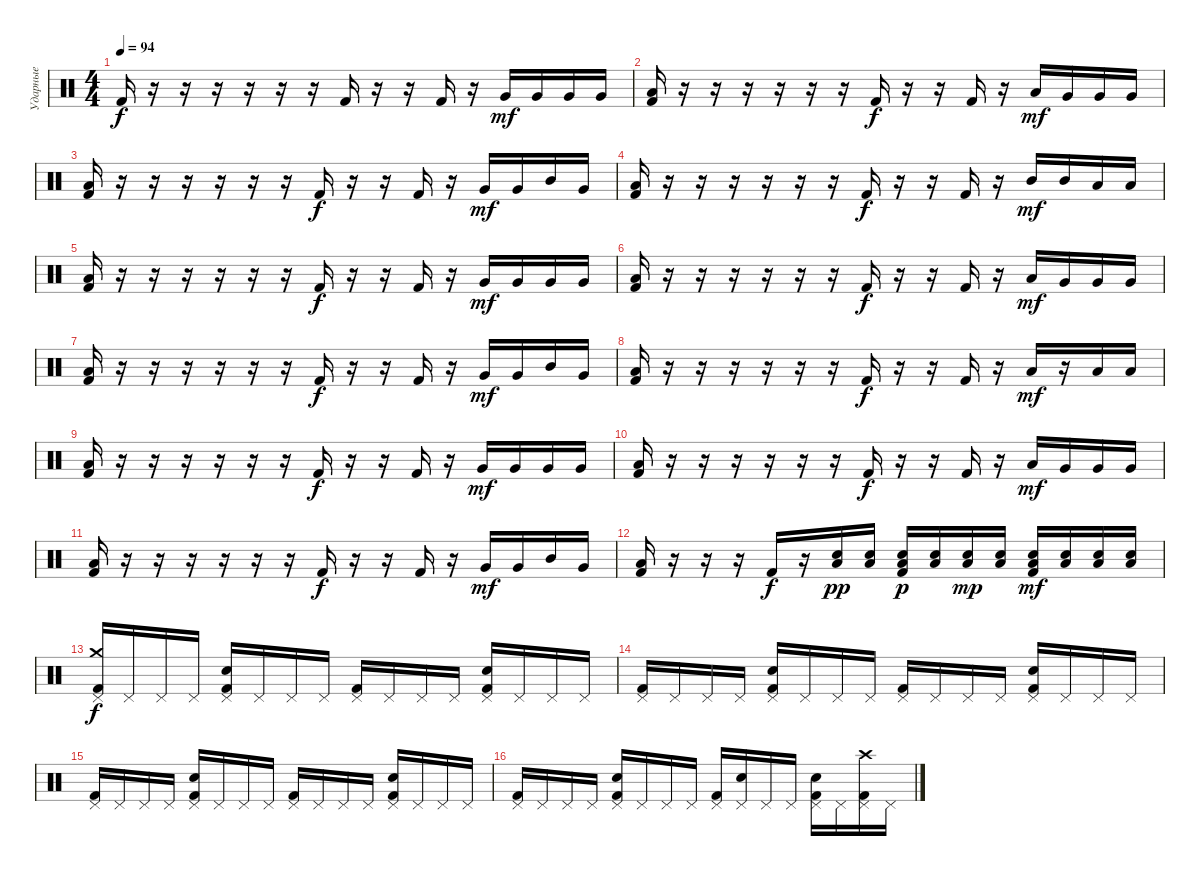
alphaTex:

\track ("Ударные" "Ударные") {instrument percussion}
\staff {score}
\articulation defaults
\ts (4 4)
\tempo 94
\clef neutral
\ks c "Kick (hit) 2".16{dy f}
r.16 r.16 r.16 r.16 r.16 r.16 "Kick (hit) 2".16 r.16 r.16 "Kick (hit) 2".16 r.16 "Very Low Tom (hit)".16{dy mf} "Very Low Tom (hit)".16 "Very Low Tom (hit)".16 "Very Low Tom (hit)".16 |
("Low Floor Tom (hit)" "Kick (hit) 2").16 r.16 r.16 r.16 r.16 r.16 r.16 "Kick (hit) 2".16{dy f} r.16 r.16 "Kick (hit) 2".16 r.16 "Low Tom (hit)".16{dy mf} "Very Low Tom (hit)".16 "Very Low Tom (hit)".16 "Very Low Tom (hit)".16 |
("Low Floor Tom (hit)" "Kick (hit) 2").16 r.16 r.16 r.16 r.16 r.16 r.16 "Kick (hit) 2".16{dy f} r.16 r.16 "Kick (hit) 2".16 r.16 "Very Low Tom (hit)".16{dy mf} "Very Low Tom (hit)".16 "Mid Tom (hit)".16 "Very Low Tom (hit)".16 |
("Low Floor Tom (hit)" "Kick (hit) 2").16 r.16 r.16 r.16 r.16 r.16 r.16 "Kick (hit) 2".16{dy f} r.16 r.16 "Kick (hit) 2".16 r.16 "Mid Tom (hit)".16{dy mf} "Mid Tom (hit)".16 "Low Tom (hit)".16 "Low Tom (hit)".16 |
("Low Floor Tom (hit)" "Kick (hit) 2").16 r.16 r.16 r.16 r.16 r.16 r.16 "Kick (hit) 2".16{dy f} r.16 r.16 "Kick (hit) 2".16 r.16 "Very Low Tom (hit)".16{dy mf} "Very Low Tom (hit)".16 "Very Low Tom (hit)".16 "Very Low Tom (hit)".16 |
("Low Floor Tom (hit)" "Kick (hit) 2").16 r.16 r.16 r.16 r.16 r.16 r.16 "Kick (hit) 2".16{dy f} r.16 r.16 "Kick (hit) 2".16 r.16 "Low Tom (hit)".16{dy mf} "Very Low Tom (hit)".16 "Very Low Tom (hit)".16 "Very Low Tom (hit)".16 |
("Low Floor Tom (hit)" "Kick (hit) 2").16 r.16 r.16 r.16 r.16 r.16 r.16 "Kick (hit) 2".16{dy f} r.16 r.16 "Kick (hit) 2".16 r.16 "Very Low Tom (hit)".16{dy mf} "Very Low Tom (hit)".16 "Mid Tom (hit)".16 "Very Low Tom (hit)".16 |
("Low Floor Tom (hit)" "Kick (hit) 2").16 r.16 r.16 r.16 r.16 r.16 r.16 "Kick (hit) 2".16{dy f} r.16 r.16 "Kick (hit) 2".16 r.16 "Low Tom (hit)".16{dy mf} r.16 "Low Tom (hit)".16 "Low Tom (hit)".16 |
("Low Floor Tom (hit)" "Kick (hit) 2").16 r.16 r.16 r.16 r.16 r.16 r.16 "Kick (hit) 2".16{dy f} r.16 r.16 "Kick (hit) 2".16 r.16 "Very Low Tom (hit)".16{dy mf} "Very Low Tom (hit)".16 "Very Low Tom (hit)".16 "Very Low Tom (hit)".16 |
("Low Floor Tom (hit)" "Kick (hit) 2").16 r.16 r.16 r.16 r.16 r.16 r.16 "Kick (hit) 2".16{dy f} r.16 r.16 "Kick (hit) 2".16 r.16 "Low Tom (hit)".16{dy mf} "Very Low Tom (hit)".16 "Very Low Tom (hit)".16 "Very Low Tom (hit)".16 |
("Low Floor Tom (hit)" "Kick (hit) 2").16 r.16 r.16 r.16 r.16 r.16 r.16 "Kick (hit) 2".16{dy f} r.16 r.16 "Kick (hit) 2".16 r.16 "Very Low Tom (hit)".16{dy mf} "Very Low Tom (hit)".16 "Mid Tom (hit)".16 "Very Low Tom (hit)".16 |
("Low Floor Tom (hit)" "Kick (hit) 2").16 r.16 r.16 r.16 "Kick (hit) 2".16{dy f} r.16 ("Low Floor Tom (hit)" "Electric Snare (hit)").16{dy pp} ("Low Floor Tom (hit)" "Electric Snare (hit)").16 ("Low Floor Tom (hit)" "Electric Snare (hit)" "Kick (hit) 2").16{dy p} ("Low Floor Tom (hit)" "Electric Snare (hit)").16 ("Low Floor Tom (hit)" "Electric Snare (hit)").16{dy mp} ("Low Floor Tom (hit)" "Electric Snare (hit)").16 ("Low Floor Tom (hit)" "Electric Snare (hit)" "Kick (hit) 2").16{dy mf} ("Low Floor Tom (hit)" "Electric Snare (hit)").16 ("Low Floor Tom (hit)" "Electric Snare (hit)").16 ("Low Floor Tom (hit)" "Electric Snare (hit)").16 |
("Crash medium (hit)" "Pedal Hi-Hat (hit)" "Kick (hit) 2").16{dy f} "Pedal Hi-Hat (hit)".16 "Pedal Hi-Hat (hit)".16 "Pedal Hi-Hat (hit)".16 ("Pedal Hi-Hat (hit)" "Snare (hit) 2" "Kick (hit) 2").16 "Pedal Hi-Hat (hit)".16 "Pedal Hi-Hat (hit)".16 "Pedal Hi-Hat (hit)".16 ("Pedal Hi-Hat (hit)" "Kick (hit) 2").16 "Pedal Hi-Hat (hit)".16 "Pedal Hi-Hat (hit)".16 "Pedal Hi-Hat (hit)".16 ("Pedal Hi-Hat (hit)" "Snare (hit) 2" "Kick (hit) 2").16 "Pedal Hi-Hat (hit)".16 "Pedal Hi-Hat (hit)".16 "Pedal Hi-Hat (hit)".16 |
("Pedal Hi-Hat (hit)" "Kick (hit) 2").16 "Pedal Hi-Hat (hit)".16 "Pedal Hi-Hat (hit)".16 "Pedal Hi-Hat (hit)".16 ("Pedal Hi-Hat (hit)" "Snare (hit) 2" "Kick (hit) 2").16 "Pedal Hi-Hat (hit)".16 "Pedal Hi-Hat (hit)".16 "Pedal Hi-Hat (hit)".16 ("Pedal Hi-Hat (hit)" "Kick (hit) 2").16 "Pedal Hi-Hat (hit)".16 "Pedal Hi-Hat (hit)".16 "Pedal Hi-Hat (hit)".16 ("Pedal Hi-Hat (hit)" "Snare (hit) 2" "Kick (hit) 2").16 "Pedal Hi-Hat (hit)".16 "Pedal Hi-Hat (hit)".16 "Pedal Hi-Hat (hit)".16 |
("Pedal Hi-Hat (hit)" "Kick (hit) 2").16 "Pedal Hi-Hat (hit)".16 "Pedal Hi-Hat (hit)".16 "Pedal Hi-Hat (hit)".16 ("Pedal Hi-Hat (hit)" "Snare (hit) 2" "Kick (hit) 2").16 "Pedal Hi-Hat (hit)".16 "Pedal Hi-Hat (hit)".16 "Pedal Hi-Hat (hit)".16 ("Pedal Hi-Hat (hit)" "Kick (hit) 2").16 "Pedal Hi-Hat (hit)".16 "Pedal Hi-Hat (hit)".16 "Pedal Hi-Hat (hit)".16 ("Pedal Hi-Hat (hit)" "Snare (hit) 2" "Kick (hit) 2").16 "Pedal Hi-Hat (hit)".16 "Pedal Hi-Hat (hit)".16 "Pedal Hi-Hat (hit)".16 |
("Pedal Hi-Hat (hit)" "Kick (hit) 2").16 "Pedal Hi-Hat (hit)".16 "Pedal Hi-Hat (hit)".16 "Pedal Hi-Hat (hit)".16 ("Pedal Hi-Hat (hit)" "Snare (hit) 2" "Kick (hit) 2").16 "Pedal Hi-Hat (hit)".16 "Pedal Hi-Hat (hit)".16 "Pedal Hi-Hat (hit)".16 ("Pedal Hi-Hat (hit)" "Kick (hit) 2").16 ("Pedal Hi-Hat (hit)" "Snare (hit) 2").16 "Pedal Hi-Hat (hit)".16 "Pedal Hi-Hat (hit)".16 ("Pedal Hi-Hat (hit)" "Snare (hit) 2" "Kick (hit) 2").16 "Pedal Hi-Hat (hit)".16 ("Crash high (hit)" "Pedal Hi-Hat (hit)" "Kick (hit) 2").16 "Pedal Hi-Hat (hit)".16
